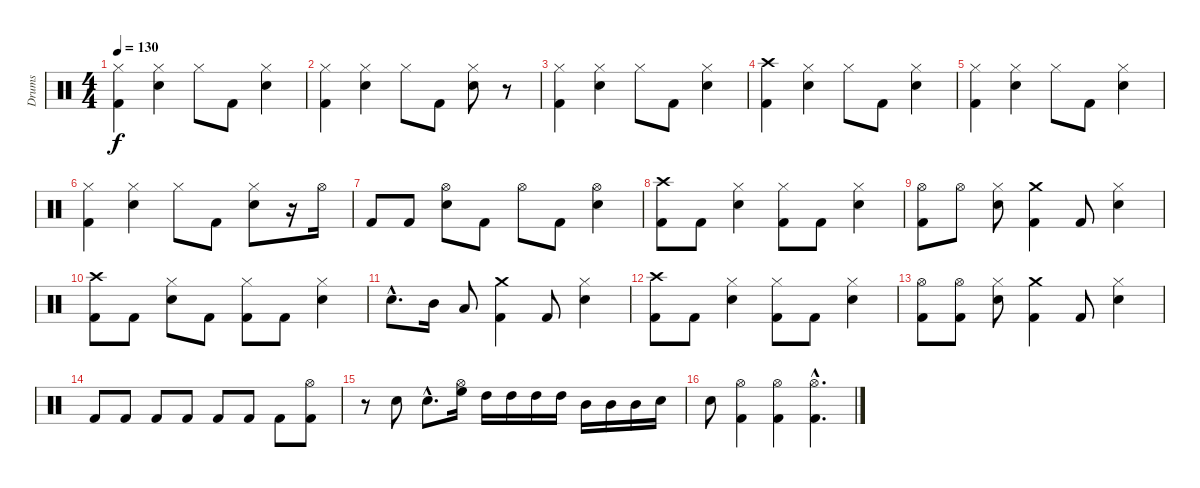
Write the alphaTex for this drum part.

\track ("Drums" "Drums") {instrument percussion}
\staff {score}
\articulation defaults
\ts (4 4)
\tempo 130
\clef neutral
\ks c
("Kick (hit) 2" "Hi-Hat (closed)").4{dy f} ("Snare (hit) 2" "Hi-Hat (closed)").4 "Hi-Hat (closed)".8 "Kick (hit) 2".8 ("Snare (hit) 2" "Hi-Hat (closed)").4 |
("Kick (hit) 2" "Hi-Hat (closed)").4 ("Snare (hit) 2" "Hi-Hat (closed)").4 "Hi-Hat (closed)".8 "Kick (hit) 2".8 ("Snare (hit) 2" "Hi-Hat (closed)").8 r.8 |
("Kick (hit) 2" "Hi-Hat (closed)").4 ("Snare (hit) 2" "Hi-Hat (closed)").4 "Hi-Hat (closed)".8 "Kick (hit) 2".8 ("Snare (hit) 2" "Hi-Hat (closed)").4 |
("Kick (hit) 2" "Crash high (hit)").4 ("Snare (hit) 2" "Hi-Hat (closed)").4 "Hi-Hat (closed)".8 "Kick (hit) 2".8 ("Snare (hit) 2" "Hi-Hat (closed)").4 |
("Kick (hit) 2" "Hi-Hat (closed)").4 ("Snare (hit) 2" "Hi-Hat (closed)").4 "Hi-Hat (closed)".8 "Kick (hit) 2".8 ("Snare (hit) 2" "Hi-Hat (closed)").4 |
("Kick (hit) 2" "Hi-Hat (closed)").4 ("Snare (hit) 2" "Hi-Hat (closed)").4 "Hi-Hat (closed)".8 "Kick (hit) 2".8 ("Snare (hit) 2" "Hi-Hat (closed)").8 r.16 "Hi-Hat (open)".16 |
"Kick (hit) 2".8 "Kick (hit) 2".8 ("Snare (hit) 2" "Hi-Hat (open)").8 "Kick (hit) 2".8 "Hi-Hat (open)".8 "Kick (hit) 2".8 ("Snare (hit) 2" "Hi-Hat (open)").4 |
("Kick (hit) 2" "Crash high (hit)").8 "Kick (hit) 2".8 ("Snare (hit) 2" "Hi-Hat (closed)").4 ("Kick (hit) 2" "Hi-Hat (closed)").8 "Kick (hit) 2".8 ("Snare (hit) 2" "Hi-Hat (closed)").4 |
("Kick (hit) 2" "Hi-Hat (open)").8 "Hi-Hat (open)".8 ("Snare (hit) 2" "Hi-Hat (closed)").8 ("Kick (hit) 2" "Crash medium (hit)").4 "Kick (hit) 2".8 ("Snare (hit) 2" "Hi-Hat (closed)").4 |
("Kick (hit) 2" "Crash high (hit)").8 "Kick (hit) 2".8 ("Snare (hit) 2" "Hi-Hat (closed)").8 "Kick (hit) 2".8 ("Kick (hit) 2" "Hi-Hat (closed)").8 "Kick (hit) 2".8 ("Snare (hit) 2" "Hi-Hat (closed)").4 |
"Snare (hit) 2"{hac}.8{d} "Mid Tom (hit)".16 "Low Tom (hit)".8 ("Kick (hit) 2" "Crash medium (hit)").4 "Kick (hit) 2".8 ("Snare (hit) 2" "Hi-Hat (closed)").4 |
("Kick (hit) 2" "Crash high (hit)").8 "Kick (hit) 2".8 ("Snare (hit) 2" "Hi-Hat (closed)").4 ("Kick (hit) 2" "Hi-Hat (closed)").8 "Kick (hit) 2".8 ("Snare (hit) 2" "Hi-Hat (closed)").4 |
("Kick (hit) 2" "Hi-Hat (open)").8 ("Kick (hit) 2" "Hi-Hat (open)").8 ("Snare (hit) 2" "Hi-Hat (closed)").8 ("Kick (hit) 2" "Crash medium (hit)").4 "Kick (hit) 2".8 ("Snare (hit) 2" "Hi-Hat (closed)").4 |
"Kick (hit) 2".8 "Kick (hit) 2".8 "Kick (hit) 2".8 "Kick (hit) 2".8 "Kick (hit) 2".8 "Kick (hit) 2".8 "Kick (hit) 2".8 ("Kick (hit) 2" "Hi-Hat (open)").8 |
r.8 "Snare (hit) 2".8 "Snare (hit) 2"{hac}.8{d} ("Hi-Hat (open)" "High Floor Tom (hit)").16 "High Tom (hit)".16 "High Tom (hit)".16 "High Tom (hit)".16 "High Tom (hit)".16 "Mid Tom (hit)".16 "Mid Tom (hit)".16 "Mid Tom (hit)".16 "Snare (hit) 2".16 |
"Snare (hit) 2".8 ("Kick (hit) 2" "Hi-Hat (open)").4 ("Kick (hit) 2" "Hi-Hat (open)").4 ("Kick (hit) 2"{hac} "Hi-Hat (open)"{hac}).4{d}
